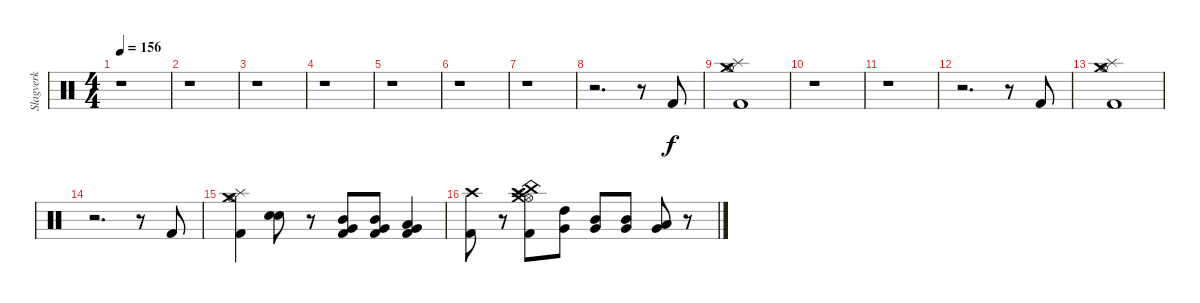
\track ("Slagverk" "Slagverk") {instrument percussion}
\staff {score}
\articulation defaults
\ts (4 4)
\tempo 156
\clef neutral
\ks c
r.1{dy f} |
r.1 |
r.1 |
r.1 |
r.1 |
r.1 |
r.1 |
r.2{d} r.8 "Kick (hit) 2".8 |
("Hi-Hat (open)" "Crash medium (hit)" "Splash (hit)" "Kick (hit) 2").1 |
r.1 |
r.1 |
r.2{d} r.8 "Kick (hit) 2".8 |
("Hi-Hat (open)" "Crash medium (hit)" "Splash (hit)" "Kick (hit) 2").1 |
r.2{d} r.8 "Kick (hit) 2".8 |
("Hi-Hat (open)" "Crash medium (hit)" "Splash (hit)" "Kick (hit) 2").4 ("Electric Snare (hit)" "Snare (hit) 2").8 r.8 ("Very Low Tom (hit)" "Mid Tom (hit)" "Kick (hit) 2").8 ("Very Low Tom (hit)" "Mid Tom (hit)" "Kick (hit) 2").8 ("Very Low Tom (hit)" "Low Tom (hit)" "Kick (hit) 2").4 |
("Crash high (hit)" "Kick (hit) 2").8 r.8 ("Crash high (hit)" "Hi-Hat (open)" "Crash medium (hit)" "Splash (hit)" "China (hit)" "Kick (hit) 2").8 ("High Tom (hit)" "Very Low Tom (hit)").8 ("Mid Tom (hit)" "Very Low Tom (hit)").8 ("Mid Tom (hit)" "Very Low Tom (hit)").8 ("Low Tom (hit)" "Very Low Tom (hit)").8 r.8
